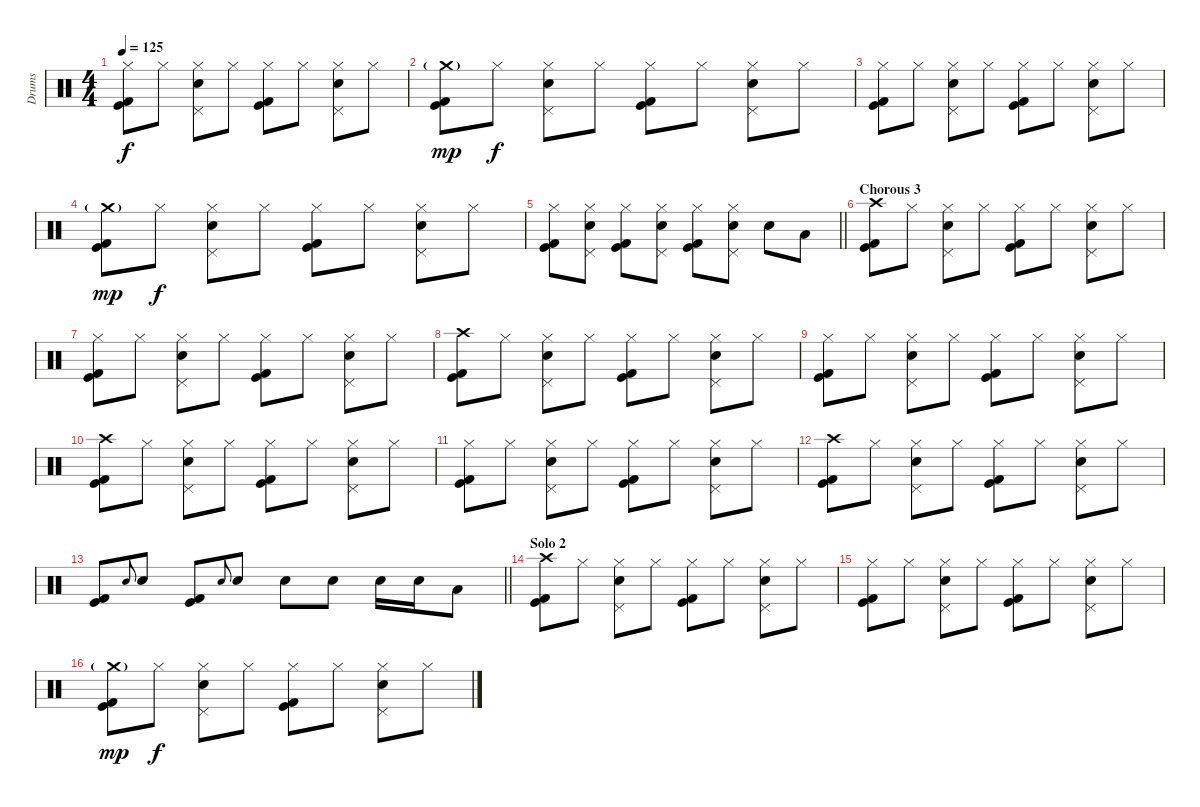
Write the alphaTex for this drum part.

\track ("Drums" "Drums") {instrument percussion}
\staff {score}
\articulation defaults
\ts (4 4)
\tempo 125
\clef neutral
\ks c
("Hi-Hat (closed)" "Kick (hit)" "Kick (hit) 2").8{dy f} "Hi-Hat (closed)".8 ("Hi-Hat (closed)" "Pedal Hi-Hat (hit)" "Electric Snare (hit)").8 "Hi-Hat (closed)".8 ("Hi-Hat (closed)" "Kick (hit)" "Kick (hit) 2").8 "Hi-Hat (closed)".8 ("Hi-Hat (closed)" "Pedal Hi-Hat (hit)" "Electric Snare (hit)").8 "Hi-Hat (closed)".8 |
("Crash medium (hit)"{g} "Kick (hit)" "Kick (hit) 2").8{dy mp} "Hi-Hat (closed)".8{dy f} ("Hi-Hat (closed)" "Pedal Hi-Hat (hit)" "Electric Snare (hit)").8 "Hi-Hat (closed)".8 ("Hi-Hat (closed)" "Kick (hit)" "Kick (hit) 2").8 "Hi-Hat (closed)".8 ("Hi-Hat (closed)" "Pedal Hi-Hat (hit)" "Electric Snare (hit)").8 "Hi-Hat (closed)".8 |
("Hi-Hat (closed)" "Kick (hit)" "Kick (hit) 2").8 "Hi-Hat (closed)".8 ("Hi-Hat (closed)" "Pedal Hi-Hat (hit)" "Electric Snare (hit)").8 "Hi-Hat (closed)".8 ("Hi-Hat (closed)" "Kick (hit)" "Kick (hit) 2").8 "Hi-Hat (closed)".8 ("Hi-Hat (closed)" "Pedal Hi-Hat (hit)" "Electric Snare (hit)").8 "Hi-Hat (closed)".8 |
("Crash medium (hit)"{g} "Kick (hit)" "Kick (hit) 2").8{dy mp} "Hi-Hat (closed)".8{dy f} ("Hi-Hat (closed)" "Pedal Hi-Hat (hit)" "Electric Snare (hit)").8 "Hi-Hat (closed)".8 ("Hi-Hat (closed)" "Kick (hit)" "Kick (hit) 2").8 "Hi-Hat (closed)".8 ("Hi-Hat (closed)" "Pedal Hi-Hat (hit)" "Electric Snare (hit)").8 "Hi-Hat (closed)".8 |
\barLineRight lightlight
("Hi-Hat (closed)" "Kick (hit)" "Kick (hit) 2").8 ("Hi-Hat (closed)" "Pedal Hi-Hat (hit)" "Electric Snare (hit)").8 ("Hi-Hat (closed)" "Kick (hit)" "Kick (hit) 2").8 ("Hi-Hat (closed)" "Pedal Hi-Hat (hit)" "Electric Snare (hit)").8 ("Hi-Hat (closed)" "Kick (hit)" "Kick (hit) 2").8 ("Hi-Hat (closed)" "Pedal Hi-Hat (hit)" "Electric Snare (hit)").8 "Electric Snare (hit)".8 "Low Tom (hit)".8 |
\section ("" "Chorous 3")
("Crash high (hit)" "Kick (hit)" "Kick (hit) 2").8 "Hi-Hat (closed)".8 ("Hi-Hat (closed)" "Pedal Hi-Hat (hit)" "Electric Snare (hit)").8 "Hi-Hat (closed)".8 ("Hi-Hat (closed)" "Kick (hit)" "Kick (hit) 2").8 "Hi-Hat (closed)".8 ("Hi-Hat (closed)" "Pedal Hi-Hat (hit)" "Electric Snare (hit)").8 "Hi-Hat (closed)".8 |
("Hi-Hat (closed)" "Kick (hit)" "Kick (hit) 2").8 "Hi-Hat (closed)".8 ("Hi-Hat (closed)" "Pedal Hi-Hat (hit)" "Electric Snare (hit)").8 "Hi-Hat (closed)".8 ("Hi-Hat (closed)" "Kick (hit)" "Kick (hit) 2").8 "Hi-Hat (closed)".8 ("Hi-Hat (closed)" "Pedal Hi-Hat (hit)" "Electric Snare (hit)").8 "Hi-Hat (closed)".8 |
("Crash high (hit)" "Kick (hit)" "Kick (hit) 2").8 "Hi-Hat (closed)".8 ("Hi-Hat (closed)" "Pedal Hi-Hat (hit)" "Electric Snare (hit)").8 "Hi-Hat (closed)".8 ("Hi-Hat (closed)" "Kick (hit)" "Kick (hit) 2").8 "Hi-Hat (closed)".8 ("Hi-Hat (closed)" "Pedal Hi-Hat (hit)" "Electric Snare (hit)").8 "Hi-Hat (closed)".8 |
("Hi-Hat (closed)" "Kick (hit)" "Kick (hit) 2").8 "Hi-Hat (closed)".8 ("Hi-Hat (closed)" "Pedal Hi-Hat (hit)" "Electric Snare (hit)").8 "Hi-Hat (closed)".8 ("Hi-Hat (closed)" "Kick (hit)" "Kick (hit) 2").8 "Hi-Hat (closed)".8 ("Hi-Hat (closed)" "Pedal Hi-Hat (hit)" "Electric Snare (hit)").8 "Hi-Hat (closed)".8 |
("Crash high (hit)" "Kick (hit)" "Kick (hit) 2").8 "Hi-Hat (closed)".8 ("Hi-Hat (closed)" "Pedal Hi-Hat (hit)" "Electric Snare (hit)").8 "Hi-Hat (closed)".8 ("Hi-Hat (closed)" "Kick (hit)" "Kick (hit) 2").8 "Hi-Hat (closed)".8 ("Hi-Hat (closed)" "Pedal Hi-Hat (hit)" "Electric Snare (hit)").8 "Hi-Hat (closed)".8 |
("Hi-Hat (closed)" "Kick (hit)" "Kick (hit) 2").8 "Hi-Hat (closed)".8 ("Hi-Hat (closed)" "Pedal Hi-Hat (hit)" "Electric Snare (hit)").8 "Hi-Hat (closed)".8 ("Hi-Hat (closed)" "Kick (hit)" "Kick (hit) 2").8 "Hi-Hat (closed)".8 ("Hi-Hat (closed)" "Pedal Hi-Hat (hit)" "Electric Snare (hit)").8 "Hi-Hat (closed)".8 |
("Crash high (hit)" "Kick (hit)" "Kick (hit) 2").8 "Hi-Hat (closed)".8 ("Hi-Hat (closed)" "Pedal Hi-Hat (hit)" "Electric Snare (hit)").8 "Hi-Hat (closed)".8 ("Hi-Hat (closed)" "Kick (hit)" "Kick (hit) 2").8 "Hi-Hat (closed)".8 ("Hi-Hat (closed)" "Pedal Hi-Hat (hit)" "Electric Snare (hit)").8 "Hi-Hat (closed)".8 |
\barLineRight lightlight
("Kick (hit)" "Kick (hit) 2").8 "Electric Snare (hit)".8{gr onbeat} "Electric Snare (hit)".8 ("Kick (hit)" "Kick (hit) 2").8 "Electric Snare (hit)".8{gr onbeat} "Electric Snare (hit)".8 "Electric Snare (hit)".8 "Electric Snare (hit)".8 "Electric Snare (hit)".16 "Electric Snare (hit)".16 "Low Tom (hit)".8 |
\section ("" "Solo 2")
("Crash high (hit)" "Kick (hit)" "Kick (hit) 2").8 "Hi-Hat (closed)".8 ("Hi-Hat (closed)" "Pedal Hi-Hat (hit)" "Electric Snare (hit)").8 "Hi-Hat (closed)".8 ("Hi-Hat (closed)" "Kick (hit)" "Kick (hit) 2").8 "Hi-Hat (closed)".8 ("Hi-Hat (closed)" "Pedal Hi-Hat (hit)" "Electric Snare (hit)").8 "Hi-Hat (closed)".8 |
("Hi-Hat (closed)" "Kick (hit)" "Kick (hit) 2").8 "Hi-Hat (closed)".8 ("Hi-Hat (closed)" "Pedal Hi-Hat (hit)" "Electric Snare (hit)").8 "Hi-Hat (closed)".8 ("Hi-Hat (closed)" "Kick (hit)" "Kick (hit) 2").8 "Hi-Hat (closed)".8 ("Hi-Hat (closed)" "Pedal Hi-Hat (hit)" "Electric Snare (hit)").8 "Hi-Hat (closed)".8 |
("Crash medium (hit)"{g} "Kick (hit)" "Kick (hit) 2").8{dy mp} "Hi-Hat (closed)".8{dy f} ("Hi-Hat (closed)" "Pedal Hi-Hat (hit)" "Electric Snare (hit)").8 "Hi-Hat (closed)".8 ("Hi-Hat (closed)" "Kick (hit)" "Kick (hit) 2").8 "Hi-Hat (closed)".8 ("Hi-Hat (closed)" "Pedal Hi-Hat (hit)" "Electric Snare (hit)").8 "Hi-Hat (closed)".8
